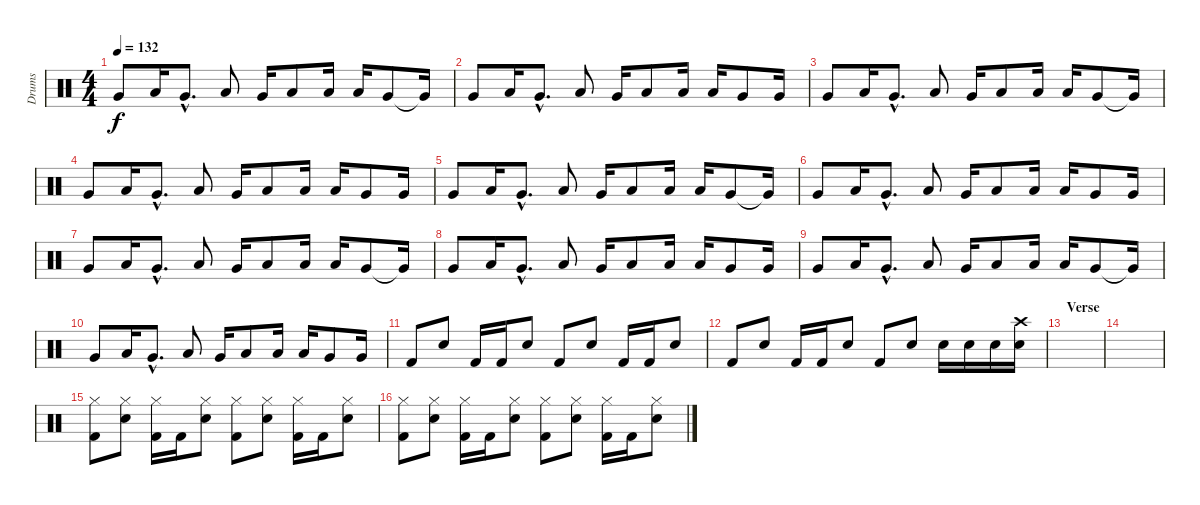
\track ("Drums" "Drums") {instrument percussion}
\staff {score}
\articulation defaults
\ts (4 4)
\tempo 132
\clef neutral
\ks c "Very Low Tom (hit)".8{dy f} "Low Floor Tom (hit)".16 "Very Low Tom (hit)"{hac}.8{d} "Low Floor Tom (hit)".8 "Very Low Tom (hit)".16 "Low Floor Tom (hit)".8 "Low Floor Tom (hit)".16 "Low Floor Tom (hit)".16 "Very Low Tom (hit)".8 "Very Low Tom (hit)"{t}.16
|
"Very Low Tom (hit)".8 "Low Floor Tom (hit)".16 "Very Low Tom (hit)"{hac}.8{d} "Low Floor Tom (hit)".8 "Very Low Tom (hit)".16 "Low Floor Tom (hit)".8 "Low Floor Tom (hit)".16 "Low Floor Tom (hit)".16 "Very Low Tom (hit)".8 "Very Low Tom (hit)".16 |
"Very Low Tom (hit)".8 "Low Floor Tom (hit)".16 "Very Low Tom (hit)"{hac}.8{d} "Low Floor Tom (hit)".8 "Very Low Tom (hit)".16 "Low Floor Tom (hit)".8 "Low Floor Tom (hit)".16 "Low Floor Tom (hit)".16 "Very Low Tom (hit)".8 "Very Low Tom (hit)"{t}.16 |
"Very Low Tom (hit)".8 "Low Floor Tom (hit)".16 "Very Low Tom (hit)"{hac}.8{d} "Low Floor Tom (hit)".8 "Very Low Tom (hit)".16 "Low Floor Tom (hit)".8 "Low Floor Tom (hit)".16 "Low Floor Tom (hit)".16 "Very Low Tom (hit)".8 "Very Low Tom (hit)".16 |
"Very Low Tom (hit)".8 "Low Floor Tom (hit)".16 "Very Low Tom (hit)"{hac}.8{d} "Low Floor Tom (hit)".8 "Very Low Tom (hit)".16 "Low Floor Tom (hit)".8 "Low Floor Tom (hit)".16 "Low Floor Tom (hit)".16 "Very Low Tom (hit)".8 "Very Low Tom (hit)"{t}.16 |
"Very Low Tom (hit)".8 "Low Floor Tom (hit)".16 "Very Low Tom (hit)"{hac}.8{d} "Low Floor Tom (hit)".8 "Very Low Tom (hit)".16 "Low Floor Tom (hit)".8 "Low Floor Tom (hit)".16 "Low Floor Tom (hit)".16 "Very Low Tom (hit)".8 "Very Low Tom (hit)".16 |
"Very Low Tom (hit)".8 "Low Floor Tom (hit)".16 "Very Low Tom (hit)"{hac}.8{d} "Low Floor Tom (hit)".8 "Very Low Tom (hit)".16 "Low Floor Tom (hit)".8 "Low Floor Tom (hit)".16 "Low Floor Tom (hit)".16 "Very Low Tom (hit)".8 "Very Low Tom (hit)"{t}.16 |
"Very Low Tom (hit)".8 "Low Floor Tom (hit)".16 "Very Low Tom (hit)"{hac}.8{d} "Low Floor Tom (hit)".8 "Very Low Tom (hit)".16 "Low Floor Tom (hit)".8 "Low Floor Tom (hit)".16 "Low Floor Tom (hit)".16 "Very Low Tom (hit)".8 "Very Low Tom (hit)".16 |
"Very Low Tom (hit)".8 "Low Floor Tom (hit)".16 "Very Low Tom (hit)"{hac}.8{d} "Low Floor Tom (hit)".8 "Very Low Tom (hit)".16 "Low Floor Tom (hit)".8 "Low Floor Tom (hit)".16 "Low Floor Tom (hit)".16 "Very Low Tom (hit)".8 "Very Low Tom (hit)"{t}.16 |
"Very Low Tom (hit)".8 "Low Floor Tom (hit)".16 "Very Low Tom (hit)"{hac}.8{d} "Low Floor Tom (hit)".8 "Very Low Tom (hit)".16 "Low Floor Tom (hit)".8 "Low Floor Tom (hit)".16 "Low Floor Tom (hit)".16 "Very Low Tom (hit)".8 "Very Low Tom (hit)".16 |
"Kick (hit) 2".8{volume 14} "Snare (hit) 2".8 "Kick (hit) 2".16 "Kick (hit) 2".16 "Snare (hit) 2".8 "Kick (hit) 2".8 "Snare (hit) 2".8 "Kick (hit) 2".16 "Kick (hit) 2".16 "Snare (hit) 2".8 |
"Kick (hit) 2".8 "Snare (hit) 2".8 "Kick (hit) 2".16 "Kick (hit) 2".16 "Snare (hit) 2".8 "Kick (hit) 2".8 "Snare (hit) 2".8 "Snare (hit) 2".16 "Snare (hit) 2".16 "Snare (hit) 2".16 ("Snare (hit) 2" "Crash high (hit)").16 |
\section ("" "Verse")
|
|
("Kick (hit) 2" "Hi-Hat (closed)").8 ("Snare (hit) 2" "Hi-Hat (closed)").8 ("Kick (hit) 2" "Hi-Hat (closed)").16 "Kick (hit) 2".16 ("Snare (hit) 2" "Hi-Hat (closed)").8 ("Kick (hit) 2" "Hi-Hat (closed)").8 ("Snare (hit) 2" "Hi-Hat (closed)").8 ("Kick (hit) 2" "Hi-Hat (closed)").16 "Kick (hit) 2".16 ("Snare (hit) 2" "Hi-Hat (closed)").8 |
("Kick (hit) 2" "Hi-Hat (closed)").8 ("Snare (hit) 2" "Hi-Hat (closed)").8 ("Kick (hit) 2" "Hi-Hat (closed)").16 "Kick (hit) 2".16 ("Snare (hit) 2" "Hi-Hat (closed)").8 ("Kick (hit) 2" "Hi-Hat (closed)").8 ("Snare (hit) 2" "Hi-Hat (closed)").8 ("Kick (hit) 2" "Hi-Hat (closed)").16 "Kick (hit) 2".16 ("Snare (hit) 2" "Hi-Hat (closed)").8
